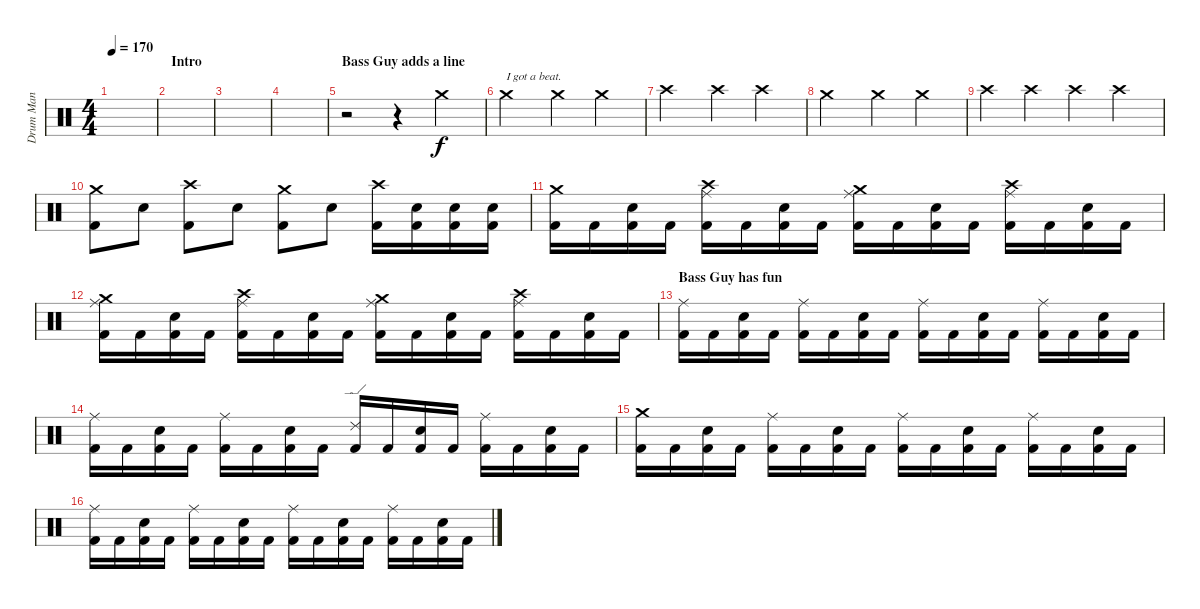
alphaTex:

\track ("Drum Man" "Drum Man") {instrument percussion}
\staff {score}
\articulation defaults
\ts (4 4)
\tempo 170
\clef neutral
\ks c
|
\section ("" "Intro")
|
|
|
\section ("" "Bass Guy adds a line")
r.2 r.4 "Crash medium (hit)".4 |
"Crash medium (hit)".2{txt "I got a beat."} "Crash medium (hit)".4 "Crash medium (hit)".4 |
"Crash high (hit)".2 "Crash high (hit)".4 "Crash high (hit)".4 |
"Crash medium (hit)".2 "Crash medium (hit)".4 "Crash medium (hit)".4 |
"Crash high (hit)".4 "Crash high (hit)".4 "Crash high (hit)".4 "Crash high (hit)".4 |
("Crash medium (hit)" "Kick (hit) 2").8 "Electric Snare (hit)".8 ("Crash high (hit)" "Kick (hit) 2").8 "Electric Snare (hit)".8 ("Crash medium (hit)" "Kick (hit) 2").8 "Electric Snare (hit)".8 ("Crash high (hit)" "Kick (hit) 2").16 ("Electric Snare (hit)" "Kick (hit) 2").16 ("Electric Snare (hit)" "Kick (hit) 2").16 ("Electric Snare (hit)" "Kick (hit) 2").16 |
("Crash medium (hit)" "Kick (hit) 2").16 "Kick (hit) 2".16 ("Snare (hit) 2" "Kick (hit) 2").16 "Kick (hit) 2".16 ("Crash high (hit)" "Ride (middle)" "Kick (hit) 2").16 "Kick (hit) 2".16 ("Snare (hit) 2" "Kick (hit) 2").16 "Kick (hit) 2".16 ("Crash medium (hit)" "Ride (middle)" "Kick (hit) 2").16 "Kick (hit) 2".16 ("Snare (hit) 2" "Kick (hit) 2").16 "Kick (hit) 2".16 ("Crash high (hit)" "Ride (middle)" "Kick (hit) 2").16 "Kick (hit) 2".16 ("Snare (hit) 2" "Kick (hit) 2").16 "Kick (hit) 2".16 |
("Crash medium (hit)" "Ride (middle)" "Kick (hit) 2").16 "Kick (hit) 2".16 ("Snare (hit) 2" "Kick (hit) 2").16 "Kick (hit) 2".16 ("Crash high (hit)" "Ride (middle)" "Kick (hit) 2").16 "Kick (hit) 2".16 ("Snare (hit) 2" "Kick (hit) 2").16 "Kick (hit) 2".16 ("Crash medium (hit)" "Ride (middle)" "Kick (hit) 2").16 "Kick (hit) 2".16 ("Snare (hit) 2" "Kick (hit) 2").16 "Kick (hit) 2".16 ("Crash high (hit)" "Ride (middle)" "Kick (hit) 2").16 "Kick (hit) 2".16 ("Snare (hit) 2" "Kick (hit) 2").16 "Kick (hit) 2".16 |
\section ("" "Bass Guy has fun")
("Ride (middle)" "Kick (hit) 2").16 "Kick (hit) 2".16 ("Snare (hit) 2" "Kick (hit) 2").16 "Kick (hit) 2".16 ("Ride (middle)" "Kick (hit) 2").16 "Kick (hit) 2".16 ("Snare (hit) 2" "Kick (hit) 2").16 "Kick (hit) 2".16 ("Ride (middle)" "Kick (hit) 2").16 "Kick (hit) 2".16 ("Snare (hit) 2" "Kick (hit) 2").16 "Kick (hit) 2".16 ("Ride (middle)" "Kick (hit) 2").16 "Kick (hit) 2".16 ("Snare (hit) 2" "Kick (hit) 2").16 "Kick (hit) 2".16 |
("Ride (middle)" "Kick (hit) 2").16 "Kick (hit) 2".16 ("Snare (hit) 2" "Kick (hit) 2").16 "Kick (hit) 2".16 ("Ride (middle)" "Kick (hit) 2").16 "Kick (hit) 2".16 ("Snare (hit) 2" "Kick (hit) 2").16 "Kick (hit) 2".16 ("Ride (edge) 2" "Kick (hit) 2").16 "Kick (hit) 2".16 ("Snare (hit) 2" "Kick (hit) 2").16 "Kick (hit) 2".16 ("Ride (middle)" "Kick (hit) 2").16 "Kick (hit) 2".16 ("Snare (hit) 2" "Kick (hit) 2").16 "Kick (hit) 2".16 |
("Crash medium (hit)" "Kick (hit) 2").16 "Kick (hit) 2".16 ("Snare (hit) 2" "Kick (hit) 2").16 "Kick (hit) 2".16 ("Ride (middle)" "Kick (hit) 2").16 "Kick (hit) 2".16 ("Snare (hit) 2" "Kick (hit) 2").16 "Kick (hit) 2".16 ("Ride (middle)" "Kick (hit) 2").16 "Kick (hit) 2".16 ("Snare (hit) 2" "Kick (hit) 2").16 "Kick (hit) 2".16 ("Ride (middle)" "Kick (hit) 2").16 "Kick (hit) 2".16 ("Snare (hit) 2" "Kick (hit) 2").16 "Kick (hit) 2".16 |
("Ride (middle)" "Kick (hit) 2").16 "Kick (hit) 2".16 ("Snare (hit) 2" "Kick (hit) 2").16 "Kick (hit) 2".16 ("Ride (middle)" "Kick (hit) 2").16 "Kick (hit) 2".16 ("Snare (hit) 2" "Kick (hit) 2").16 "Kick (hit) 2".16 ("Ride (middle)" "Kick (hit) 2").16 "Kick (hit) 2".16 ("Snare (hit) 2" "Kick (hit) 2").16 "Kick (hit) 2".16 ("Ride (middle)" "Kick (hit) 2").16 "Kick (hit) 2".16 ("Snare (hit) 2" "Kick (hit) 2").16 "Kick (hit) 2".16
